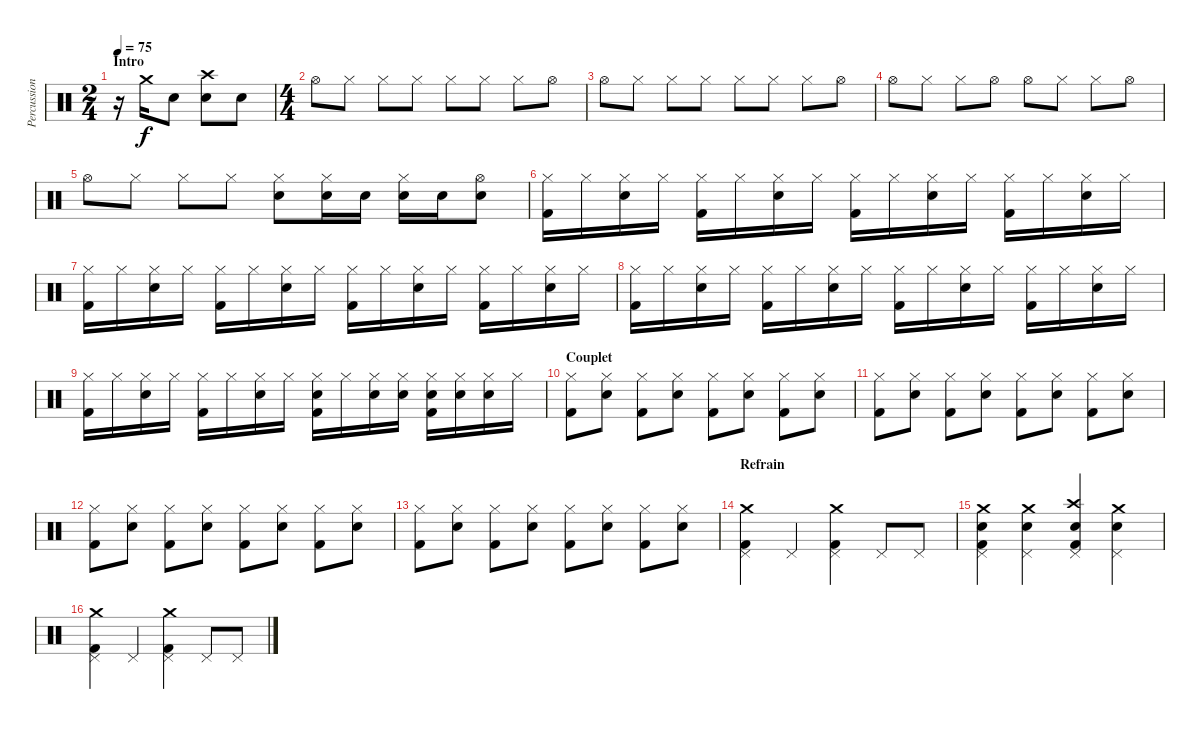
\track ("Percussions" "Percussion") {instrument percussion}
\staff {score}
\articulation defaults
\ts (2 4)
\section ("" "Intro")
\tempo 75
\clef neutral
\ks c
r.16{dy f} "Crash medium (hit)".16 "Electric Snare (hit)".8 ("Crash high (hit)" "Electric Snare (hit)").8 "Electric Snare (hit)".8 |
\ts (4 4)
"Hi-Hat (open)".8 "Hi-Hat (closed)".8 "Hi-Hat (closed)".8 "Hi-Hat (closed)".8 "Hi-Hat (closed)".8 "Hi-Hat (closed)".8 "Hi-Hat (closed)".8 "Hi-Hat (open)".8 |
"Hi-Hat (open)".8 "Hi-Hat (closed)".8 "Hi-Hat (closed)".8 "Hi-Hat (closed)".8 "Hi-Hat (closed)".8 "Hi-Hat (closed)".8 "Hi-Hat (closed)".8 "Hi-Hat (open)".8 |
"Hi-Hat (open)".8 "Hi-Hat (closed)".8 "Hi-Hat (closed)".8 "Hi-Hat (open)".8 "Hi-Hat (open)".8 "Hi-Hat (closed)".8 "Hi-Hat (closed)".8 "Hi-Hat (open)".8 |
"Hi-Hat (open)".8 "Hi-Hat (closed)".8 "Hi-Hat (closed)".8 "Hi-Hat (closed)".8 ("Hi-Hat (closed)" "Electric Snare (hit)").8 ("Hi-Hat (closed)" "Electric Snare (hit)").16 "Electric Snare (hit)".16 ("Hi-Hat (closed)" "Electric Snare (hit)").16 "Electric Snare (hit)".16 ("Hi-Hat (open)" "Electric Snare (hit)").8 |
("Hi-Hat (closed)" "Kick (hit) 2").16 "Hi-Hat (closed)".16 ("Hi-Hat (closed)" "Electric Snare (hit)").16 "Hi-Hat (closed)".16 ("Hi-Hat (closed)" "Kick (hit) 2").16 "Hi-Hat (closed)".16 ("Hi-Hat (closed)" "Electric Snare (hit)").16 "Hi-Hat (closed)".16 ("Hi-Hat (closed)" "Kick (hit) 2").16 "Hi-Hat (closed)".16 ("Hi-Hat (closed)" "Electric Snare (hit)").16 "Hi-Hat (closed)".16 ("Hi-Hat (closed)" "Kick (hit) 2").16 "Hi-Hat (closed)".16 ("Hi-Hat (closed)" "Electric Snare (hit)").16 "Hi-Hat (closed)".16 |
("Hi-Hat (closed)" "Kick (hit) 2").16 "Hi-Hat (closed)".16 ("Hi-Hat (closed)" "Electric Snare (hit)").16 "Hi-Hat (closed)".16 ("Hi-Hat (closed)" "Kick (hit) 2").16 "Hi-Hat (closed)".16 ("Hi-Hat (closed)" "Electric Snare (hit)").16 "Hi-Hat (closed)".16 ("Hi-Hat (closed)" "Kick (hit) 2").16 "Hi-Hat (closed)".16 ("Hi-Hat (closed)" "Electric Snare (hit)").16 "Hi-Hat (closed)".16 ("Hi-Hat (closed)" "Kick (hit) 2").16 "Hi-Hat (closed)".16 ("Hi-Hat (closed)" "Electric Snare (hit)").16 "Hi-Hat (closed)".16 |
("Hi-Hat (closed)" "Kick (hit) 2").16 "Hi-Hat (closed)".16 ("Hi-Hat (closed)" "Electric Snare (hit)").16 "Hi-Hat (closed)".16 ("Hi-Hat (closed)" "Kick (hit) 2").16 "Hi-Hat (closed)".16 ("Hi-Hat (closed)" "Electric Snare (hit)").16 "Hi-Hat (closed)".16 ("Hi-Hat (closed)" "Kick (hit) 2").16 "Hi-Hat (closed)".16 ("Hi-Hat (closed)" "Electric Snare (hit)").16 "Hi-Hat (closed)".16 ("Hi-Hat (closed)" "Kick (hit) 2").16 "Hi-Hat (closed)".16 ("Hi-Hat (closed)" "Electric Snare (hit)").16 "Hi-Hat (closed)".16 |
("Hi-Hat (closed)" "Kick (hit) 2").16 "Hi-Hat (closed)".16 ("Hi-Hat (closed)" "Electric Snare (hit)").16 "Hi-Hat (closed)".16 ("Hi-Hat (closed)" "Kick (hit) 2").16 "Hi-Hat (closed)".16 ("Hi-Hat (closed)" "Electric Snare (hit)").16 "Hi-Hat (closed)".16 ("Hi-Hat (closed)" "Electric Snare (hit)" "Kick (hit) 2").16 "Hi-Hat (closed)".16 ("Hi-Hat (closed)" "Electric Snare (hit)").16 ("Hi-Hat (closed)" "Electric Snare (hit)").16 ("Hi-Hat (closed)" "Electric Snare (hit)" "Kick (hit) 2").16 ("Hi-Hat (closed)" "Electric Snare (hit)").16 ("Hi-Hat (closed)" "Electric Snare (hit)").16 "Hi-Hat (closed)".16 |
\section ("" "Couplet")
("Hi-Hat (closed)" "Kick (hit) 2").8 ("Hi-Hat (closed)" "Electric Snare (hit)").8 ("Hi-Hat (closed)" "Kick (hit) 2").8 ("Hi-Hat (closed)" "Electric Snare (hit)").8 ("Hi-Hat (closed)" "Kick (hit) 2").8 ("Hi-Hat (closed)" "Electric Snare (hit)").8 ("Hi-Hat (closed)" "Kick (hit) 2").8 ("Hi-Hat (closed)" "Electric Snare (hit)").8 |
("Hi-Hat (closed)" "Kick (hit) 2").8 ("Hi-Hat (closed)" "Electric Snare (hit)").8 ("Hi-Hat (closed)" "Kick (hit) 2").8 ("Hi-Hat (closed)" "Electric Snare (hit)").8 ("Hi-Hat (closed)" "Kick (hit) 2").8 ("Hi-Hat (closed)" "Electric Snare (hit)").8 ("Hi-Hat (closed)" "Kick (hit) 2").8 ("Hi-Hat (closed)" "Electric Snare (hit)").8 |
("Hi-Hat (closed)" "Kick (hit) 2").8 ("Hi-Hat (closed)" "Electric Snare (hit)").8 ("Hi-Hat (closed)" "Kick (hit) 2").8 ("Hi-Hat (closed)" "Electric Snare (hit)").8 ("Hi-Hat (closed)" "Kick (hit) 2").8 ("Hi-Hat (closed)" "Electric Snare (hit)").8 ("Hi-Hat (closed)" "Kick (hit) 2").8 ("Hi-Hat (closed)" "Electric Snare (hit)").8 |
("Hi-Hat (closed)" "Kick (hit) 2").8 ("Hi-Hat (closed)" "Electric Snare (hit)").8 ("Hi-Hat (closed)" "Kick (hit) 2").8 ("Hi-Hat (closed)" "Electric Snare (hit)").8 ("Hi-Hat (closed)" "Kick (hit) 2").8 ("Hi-Hat (closed)" "Electric Snare (hit)").8 ("Hi-Hat (closed)" "Kick (hit) 2").8 ("Hi-Hat (closed)" "Electric Snare (hit)").8 |
\section ("" "Refrain")
("Pedal Hi-Hat (hit)" "Crash medium (hit)" "Kick (hit) 2").4 "Pedal Hi-Hat (hit)".4 ("Pedal Hi-Hat (hit)" "Crash medium (hit)" "Kick (hit) 2").4 "Pedal Hi-Hat (hit)".8 "Pedal Hi-Hat (hit)".8 |
("Pedal Hi-Hat (hit)" "Crash medium (hit)" "Electric Snare (hit)" "Kick (hit) 2").4 ("Pedal Hi-Hat (hit)" "Crash medium (hit)" "Electric Snare (hit)").4 ("Pedal Hi-Hat (hit)" "Crash high (hit)" "Electric Snare (hit)" "Kick (hit) 2").4 ("Pedal Hi-Hat (hit)" "Crash medium (hit)" "Electric Snare (hit)").4 |
("Pedal Hi-Hat (hit)" "Crash medium (hit)" "Kick (hit) 2").4 "Pedal Hi-Hat (hit)".4 ("Pedal Hi-Hat (hit)" "Crash medium (hit)" "Kick (hit) 2").4 "Pedal Hi-Hat (hit)".8 "Pedal Hi-Hat (hit)".8
